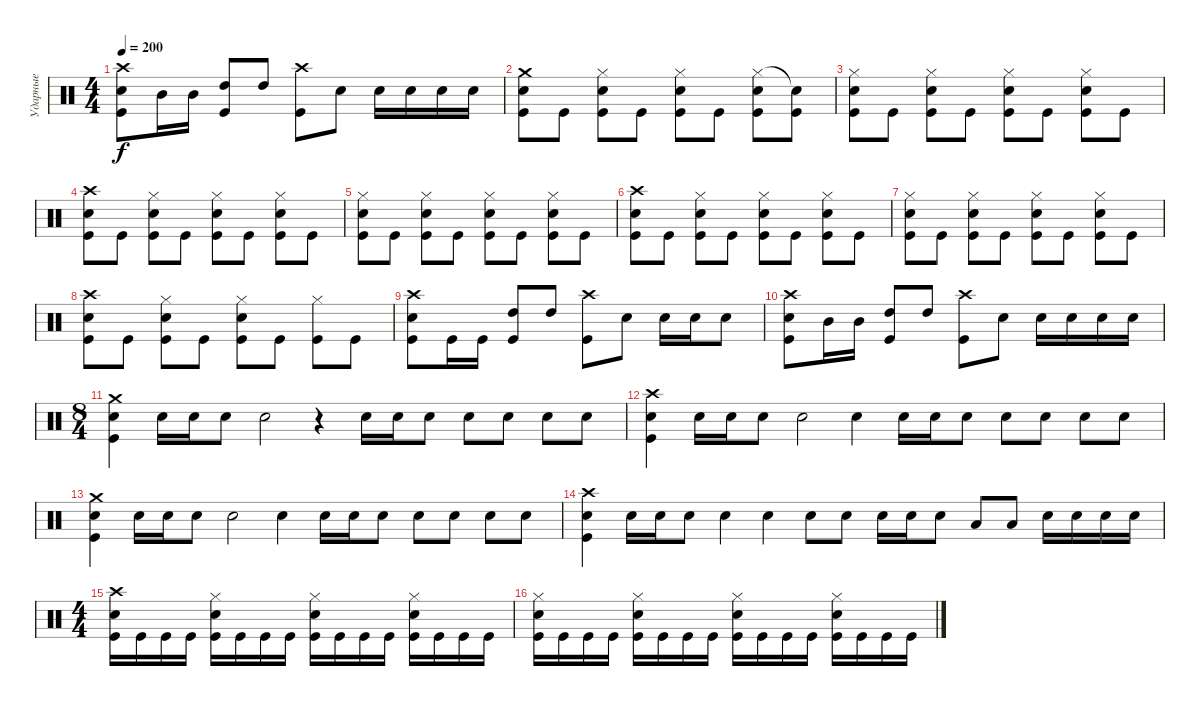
\track ("Ударные" "Ударные") {instrument percussion}
\staff {score}
\articulation defaults
\ts (4 4)
\tempo 200
\clef neutral
\ks c
("Crash high (hit)" "Electric Snare (hit)" "Kick (hit)").8{dy f} "Mid Tom (hit)".16 "Mid Tom (hit)".16 ("High Tom (hit)" "Kick (hit)").8 "High Tom (hit)".8 ("Crash high (hit)" "Kick (hit)").8 "Electric Snare (hit)".8 "Electric Snare (hit)".16 "Electric Snare (hit)".16 "Electric Snare (hit)".16 "Electric Snare (hit)".16 |
("Crash medium (hit)" "Electric Snare (hit)" "Kick (hit)").8 "Kick (hit)".8 ("Hi-Hat (closed)" "Electric Snare (hit)" "Kick (hit)").8 "Kick (hit)".8 ("Hi-Hat (closed)" "Electric Snare (hit)" "Kick (hit)").8 "Kick (hit)".8 ("Hi-Hat (closed)" "Electric Snare (hit)" "Kick (hit)").8 ("Snare (hit)"{t} "Kick (hit)").8 |
("Hi-Hat (closed)" "Electric Snare (hit)" "Kick (hit)").8 "Kick (hit)".8 ("Hi-Hat (closed)" "Electric Snare (hit)" "Kick (hit)").8 "Kick (hit)".8 ("Hi-Hat (closed)" "Electric Snare (hit)" "Kick (hit)").8 "Kick (hit)".8 ("Hi-Hat (closed)" "Electric Snare (hit)" "Kick (hit)").8 "Kick (hit)".8 |
("Crash high (hit)" "Electric Snare (hit)" "Kick (hit)").8 "Kick (hit)".8 ("Hi-Hat (closed)" "Electric Snare (hit)" "Kick (hit)").8 "Kick (hit)".8 ("Hi-Hat (closed)" "Electric Snare (hit)" "Kick (hit)").8 "Kick (hit)".8 ("Hi-Hat (closed)" "Electric Snare (hit)" "Kick (hit)").8 "Kick (hit)".8 |
("Hi-Hat (closed)" "Electric Snare (hit)" "Kick (hit)").8 "Kick (hit)".8 ("Hi-Hat (closed)" "Electric Snare (hit)" "Kick (hit)").8 "Kick (hit)".8 ("Hi-Hat (closed)" "Electric Snare (hit)" "Kick (hit)").8 "Kick (hit)".8 ("Hi-Hat (closed)" "Electric Snare (hit)" "Kick (hit)").8 "Kick (hit)".8 |
("Crash high (hit)" "Electric Snare (hit)" "Kick (hit)").8 "Kick (hit)".8 ("Hi-Hat (closed)" "Electric Snare (hit)" "Kick (hit)").8 "Kick (hit)".8 ("Hi-Hat (closed)" "Electric Snare (hit)" "Kick (hit)").8 "Kick (hit)".8 ("Hi-Hat (closed)" "Electric Snare (hit)" "Kick (hit)").8 "Kick (hit)".8 |
("Hi-Hat (closed)" "Electric Snare (hit)" "Kick (hit)").8 "Kick (hit)".8 ("Hi-Hat (closed)" "Electric Snare (hit)" "Kick (hit)").8 "Kick (hit)".8 ("Hi-Hat (closed)" "Electric Snare (hit)" "Kick (hit)").8 "Kick (hit)".8 ("Hi-Hat (closed)" "Electric Snare (hit)" "Kick (hit)").8 "Kick (hit)".8 |
("Crash high (hit)" "Electric Snare (hit)" "Kick (hit)").8 "Kick (hit)".8 ("Hi-Hat (closed)" "Electric Snare (hit)" "Kick (hit)").8 "Kick (hit)".8 ("Hi-Hat (closed)" "Electric Snare (hit)" "Kick (hit)").8 "Kick (hit)".8 ("Hi-Hat (closed)" "Kick (hit)").8 "Kick (hit)".8 |
("Crash high (hit)" "Electric Snare (hit)" "Kick (hit)").8 "Kick (hit)".16 "Kick (hit)".16 ("High Tom (hit)" "Kick (hit)").8 "High Tom (hit)".8 ("Crash high (hit)" "Kick (hit)").8 "Electric Snare (hit)".8 "Electric Snare (hit)".16 "Electric Snare (hit)".16 "Electric Snare (hit)".8 |
("Crash high (hit)" "Electric Snare (hit)" "Kick (hit)").8 "Mid Tom (hit)".16 "Mid Tom (hit)".16 ("High Tom (hit)" "Kick (hit)").8 "High Tom (hit)".8 ("Crash high (hit)" "Kick (hit)").8 "Electric Snare (hit)".8 "Electric Snare (hit)".16 "Electric Snare (hit)".16 "Electric Snare (hit)".16 "Electric Snare (hit)".16 |
\ts (8 4)
("Crash medium (hit)" "Electric Snare (hit)" "Kick (hit)").4 "Electric Snare (hit)".16 "Electric Snare (hit)".16 "Electric Snare (hit)".8 "Electric Snare (hit)".2 r.4 "Electric Snare (hit)".16 "Electric Snare (hit)".16 "Electric Snare (hit)".8 "Electric Snare (hit)".8 "Electric Snare (hit)".8 "Electric Snare (hit)".8 "Electric Snare (hit)".8 |
("Crash high (hit)" "Electric Snare (hit)" "Kick (hit)").4 "Electric Snare (hit)".16 "Electric Snare (hit)".16 "Electric Snare (hit)".8 "Electric Snare (hit)".2 "Electric Snare (hit)".4 "Electric Snare (hit)".16 "Electric Snare (hit)".16 "Electric Snare (hit)".8 "Electric Snare (hit)".8 "Electric Snare (hit)".8 "Electric Snare (hit)".8 "Electric Snare (hit)".8 |
("Crash medium (hit)" "Electric Snare (hit)" "Kick (hit)").4 "Electric Snare (hit)".16 "Electric Snare (hit)".16 "Electric Snare (hit)".8 "Electric Snare (hit)".2 "Electric Snare (hit)".4 "Electric Snare (hit)".16 "Electric Snare (hit)".16 "Electric Snare (hit)".8 "Electric Snare (hit)".8 "Electric Snare (hit)".8 "Electric Snare (hit)".8 "Electric Snare (hit)".8 |
("Crash high (hit)" "Electric Snare (hit)" "Kick (hit)").4 "Electric Snare (hit)".16 "Electric Snare (hit)".16 "Electric Snare (hit)".8 "Electric Snare (hit)".4 "Electric Snare (hit)".4 "Electric Snare (hit)".8 "Electric Snare (hit)".8 "Electric Snare (hit)".16 "Electric Snare (hit)".16 "Electric Snare (hit)".8 "Low Tom (hit)".8 "Low Tom (hit)".8 "Electric Snare (hit)".16 "Electric Snare (hit)".16 "Electric Snare (hit)".16 "Electric Snare (hit)".16 |
\ts (4 4)
("Crash high (hit)" "Electric Snare (hit)" "Kick (hit)").16 "Kick (hit)".16 "Kick (hit)".16 "Kick (hit)".16 ("Hi-Hat (closed)" "Electric Snare (hit)" "Kick (hit)").16 "Kick (hit)".16 "Kick (hit)".16 "Kick (hit)".16 ("Hi-Hat (closed)" "Electric Snare (hit)" "Kick (hit)").16 "Kick (hit)".16 "Kick (hit)".16 "Kick (hit)".16 ("Hi-Hat (closed)" "Electric Snare (hit)" "Kick (hit)").16 "Kick (hit)".16 "Kick (hit)".16 "Kick (hit)".16 |
("Hi-Hat (closed)" "Electric Snare (hit)" "Kick (hit)").16 "Kick (hit)".16 "Kick (hit)".16 "Kick (hit)".16 ("Hi-Hat (closed)" "Electric Snare (hit)" "Kick (hit)").16 "Kick (hit)".16 "Kick (hit)".16 "Kick (hit)".16 ("Hi-Hat (closed)" "Electric Snare (hit)" "Kick (hit)").16 "Kick (hit)".16 "Kick (hit)".16 "Kick (hit)".16 ("Hi-Hat (closed)" "Electric Snare (hit)" "Kick (hit)").16 "Kick (hit)".16 "Kick (hit)".16 "Kick (hit)".16
